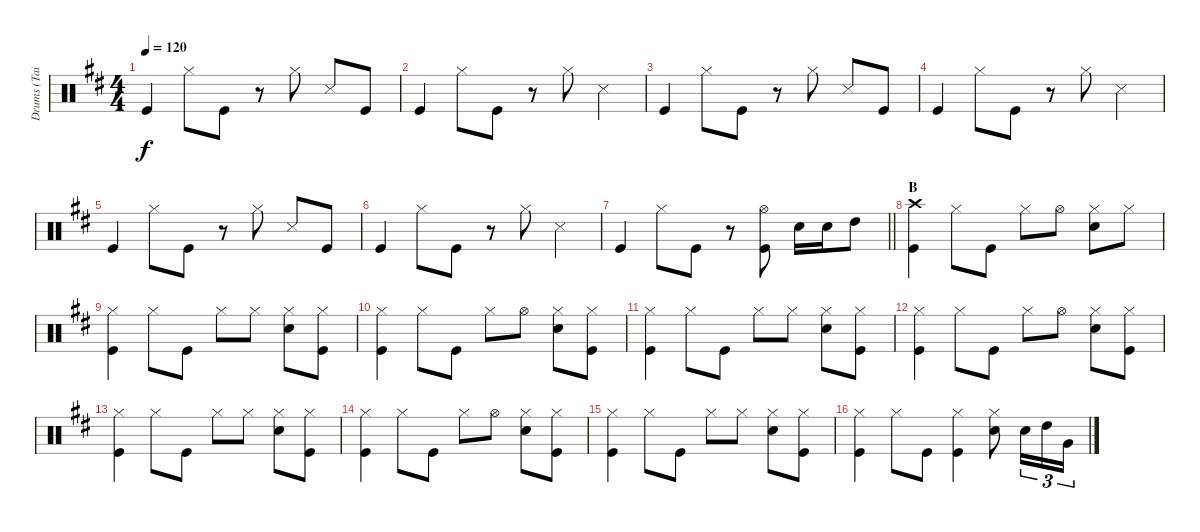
\track ("Drums (Tainaka Ritsu)" "Drums (Tai") {instrument percussion}
\staff {score}
\articulation defaults
\ts (4 4)
\tempo 120
\clef neutral
\ks d "Kick (hit)".4{dy f} "Hi-Hat (closed)".8 "Kick (hit)".8
r.8 "Hi-Hat (closed)".8 "Snare (side stick) 3".8 "Kick (hit)".8 |
"Kick (hit)".4 "Hi-Hat (closed)".8 "Kick (hit)".8 r.8 "Hi-Hat (closed)".8 "Snare (side stick) 3".4 |
"Kick (hit)".4 "Hi-Hat (closed)".8 "Kick (hit)".8 r.8 "Hi-Hat (closed)".8 "Snare (side stick) 3".8 "Kick (hit)".8 |
"Kick (hit)".4 "Hi-Hat (closed)".8 "Kick (hit)".8 r.8 "Hi-Hat (closed)".8 "Snare (side stick) 3".4 |
"Kick (hit)".4 "Hi-Hat (closed)".8 "Kick (hit)".8 r.8 "Hi-Hat (closed)".8 "Snare (side stick) 3".8 "Kick (hit)".8 |
"Kick (hit)".4 "Hi-Hat (closed)".8 "Kick (hit)".8 r.8 "Hi-Hat (closed)".8 "Snare (side stick) 3".4 |
\barLineRight lightlight "Kick (hit)".4 "Hi-Hat (closed)".8 "Kick (hit)".8
r.8 ("Hi-Hat (open)" "Kick (hit)").8 "Snare (hit) 2".16 "Snare (hit) 2".16 "High Tom (hit)".8 |
\section ("" "B")
("Crash high (hit)" "Kick (hit)").4 "Hi-Hat (closed)".8 "Kick (hit)".8 "Hi-Hat (closed)".8 "Hi-Hat (open)".8 ("Hi-Hat (closed)" "Snare (hit) 2").8 "Hi-Hat (closed)".8 |
("Hi-Hat (closed)" "Kick (hit)").4 "Hi-Hat (closed)".8 "Kick (hit)".8 "Hi-Hat (closed)".8 "Hi-Hat (closed)".8 ("Hi-Hat (closed)" "Snare (hit) 2").8 ("Hi-Hat (closed)" "Kick (hit)").8 |
("Hi-Hat (closed)" "Kick (hit)").4 "Hi-Hat (closed)".8 "Kick (hit)".8 "Hi-Hat (closed)".8 "Hi-Hat (open)".8 ("Hi-Hat (closed)" "Snare (hit) 2").8 ("Hi-Hat (closed)" "Kick (hit)").8 |
("Hi-Hat (closed)" "Kick (hit)").4 "Hi-Hat (closed)".8 "Kick (hit)".8 "Hi-Hat (closed)".8 "Hi-Hat (closed)".8 ("Hi-Hat (closed)" "Snare (hit) 2").8 ("Hi-Hat (closed)" "Kick (hit)").8 |
("Hi-Hat (closed)" "Kick (hit)").4 "Hi-Hat (closed)".8 "Kick (hit)".8 "Hi-Hat (closed)".8 "Hi-Hat (open)".8 ("Hi-Hat (closed)" "Snare (hit) 2").8 ("Hi-Hat (closed)" "Kick (hit)").8 |
("Hi-Hat (closed)" "Kick (hit)").4 "Hi-Hat (closed)".8 "Kick (hit)".8 "Hi-Hat (closed)".8 "Hi-Hat (closed)".8 ("Hi-Hat (closed)" "Snare (hit) 2").8 ("Hi-Hat (closed)" "Kick (hit)").8 |
("Hi-Hat (closed)" "Kick (hit)").4 "Hi-Hat (closed)".8 "Kick (hit)".8 "Hi-Hat (closed)".8 "Hi-Hat (open)".8 ("Hi-Hat (closed)" "Snare (hit) 2").8 ("Hi-Hat (closed)" "Kick (hit)").8 |
("Hi-Hat (closed)" "Kick (hit)").4 "Hi-Hat (closed)".8 "Kick (hit)".8 "Hi-Hat (closed)".8 "Hi-Hat (closed)".8 ("Hi-Hat (closed)" "Snare (hit) 2").8 ("Hi-Hat (closed)" "Kick (hit)").8 |
("Hi-Hat (closed)" "Kick (hit)").4 "Hi-Hat (closed)".8 "Kick (hit)".8 ("Hi-Hat (closed)" "Kick (hit)").4 ("Hi-Hat (closed)" "Snare (hit) 2").8 "Snare (hit) 2".16{tu (3 2)} "High Tom (hit)".16{tu (3 2)} "Very Low Tom (hit)".16{tu (3 2)}
